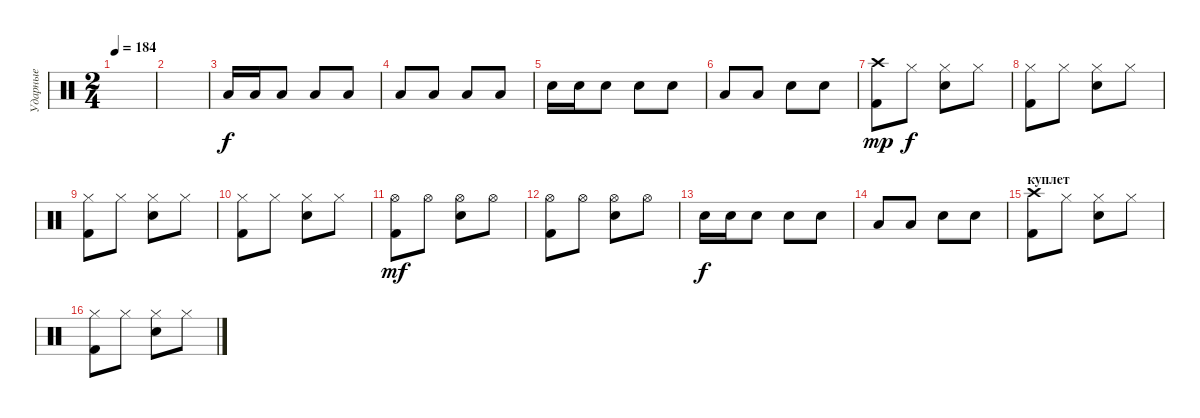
\track ("Ударные" "Ударные") {instrument percussion}
\staff {score}
\articulation defaults
\ts (2 4)
\tempo 184
\clef neutral
\ks c
|
|
"Low Floor Tom (hit)".16{dy f} "Low Floor Tom (hit)".16 "Low Floor Tom (hit)".8 "Low Floor Tom (hit)".8 "Low Floor Tom (hit)".8 |
"Low Floor Tom (hit)".8 "Low Floor Tom (hit)".8 "Low Floor Tom (hit)".8 "Low Floor Tom (hit)".8 |
"Snare (hit) 2".16 "Snare (hit) 2".16 "Snare (hit) 2".8 "Snare (hit) 2".8 "Snare (hit) 2".8 |
"Low Tom (hit)".8 "Low Tom (hit)".8 "Snare (hit) 2".8 "Snare (hit) 2".8 |
("Crash high (hit)" "Kick (hit) 2").8{dy mp} "Hi-Hat (closed)".8{dy f} ("Hi-Hat (closed)" "Snare (hit) 2").8 "Hi-Hat (closed)".8 |
("Hi-Hat (closed)" "Kick (hit) 2").8 "Hi-Hat (closed)".8 ("Hi-Hat (closed)" "Snare (hit) 2").8 "Hi-Hat (closed)".8 |
("Hi-Hat (closed)" "Kick (hit) 2").8 "Hi-Hat (closed)".8 ("Hi-Hat (closed)" "Snare (hit) 2").8 "Hi-Hat (closed)".8 |
("Hi-Hat (closed)" "Kick (hit) 2").8 "Hi-Hat (closed)".8 ("Hi-Hat (closed)" "Snare (hit) 2").8 "Hi-Hat (closed)".8 |
("Hi-Hat (open)" "Kick (hit) 2").8{dy mf} "Hi-Hat (open)".8 ("Hi-Hat (open)" "Snare (hit) 2").8 "Hi-Hat (open)".8 |
("Hi-Hat (open)" "Kick (hit) 2").8 "Hi-Hat (open)".8 ("Hi-Hat (open)" "Snare (hit) 2").8 "Hi-Hat (open)".8 |
"Snare (hit) 2".16{dy f} "Snare (hit) 2".16 "Snare (hit) 2".8 "Snare (hit) 2".8 "Snare (hit) 2".8 |
"Low Tom (hit)".8 "Low Tom (hit)".8 "Snare (hit) 2".8 "Snare (hit) 2".8 |
\section ("" "куплет")
("Crash high (hit)" "Kick (hit) 2").8 "Hi-Hat (closed)".8 ("Hi-Hat (closed)" "Snare (hit) 2").8 "Hi-Hat (closed)".8 |
("Hi-Hat (closed)" "Kick (hit) 2").8 "Hi-Hat (closed)".8 ("Hi-Hat (closed)" "Snare (hit) 2").8 "Hi-Hat (closed)".8
